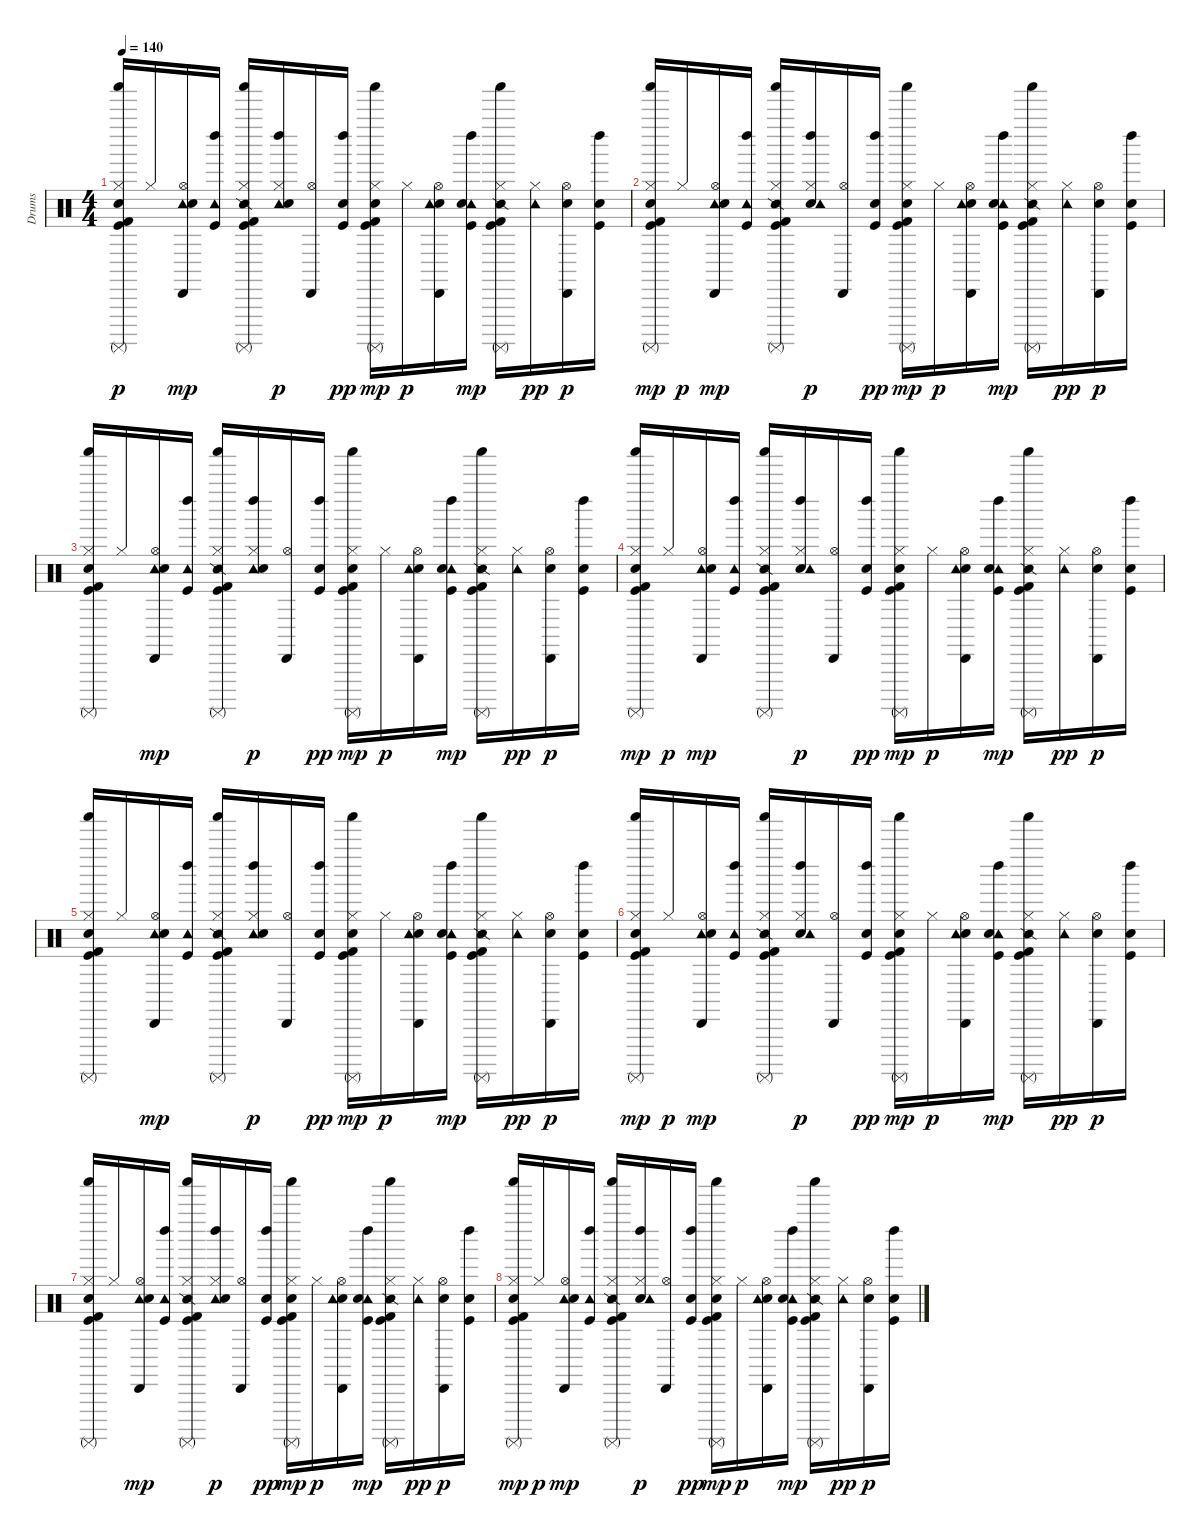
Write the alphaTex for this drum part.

\track ("Drums" "Drums") {instrument percussion}
\staff {score}
\articulation defaults
\ts (4 4)
\tempo 140
\clef neutral
\ks c
("Kick (hit)" "Kick (hit) 2" "Hi-Hat (closed)" "Shaker (hit)" "Surdo (mute)" "Snare (hit) 2").16{dy p} "Hi-Hat (closed)".16 ("Hi-Hat (open)" "Tambourine (hit)" "Cabasa (hit)" "Snare (hit) 2").16{dy mp} ("Kick (hit)" "Tambourine (hit)" "Left Maraca (hit)").16 ("Snare (side stick) 2" "Kick (hit)" "Kick (hit) 2" "Hi-Hat (closed)" "Shaker (hit)" "Surdo (mute)").16 ("Hi-Hat (closed)" "Tambourine (hit)" "Left Maraca (hit)" "Snare (hit) 2").16{dy p} ("Hi-Hat (open)" "Cabasa (hit)").16 ("Kick (hit)" "Left Maraca (hit)" "Snare (hit) 2").16{dy pp} ("Kick (hit)" "Kick (hit) 2" "Hi-Hat (closed)" "Shaker (hit)" "Surdo (mute)" "Snare (hit) 2").16{dy mp} "Hi-Hat (closed)".16{dy p} ("Hand Clap (hit)" "Hi-Hat (open)" "Tambourine (hit)" "Cabasa (hit)").16 ("Kick (hit)" "Tambourine (hit)" "Left Maraca (hit)" "Snare (hit) 2").16{dy mp} ("Snare (side stick) 2" "Kick (hit)" "Kick (hit) 2" "Hi-Hat (closed)" "Shaker (hit)" "Surdo (mute)").16 ("Hi-Hat (closed)" "Tambourine (hit)").16{dy pp} ("Hand Clap (hit)" "Hi-Hat (open)" "Cabasa (hit)").16{dy p} ("Kick (hit)" "Left Maraca (hit)" "Snare (hit) 2").16 |
("Kick (hit)" "Kick (hit) 2" "Hand Clap (hit)" "Hi-Hat (closed)" "Shaker (hit)" "Surdo (mute)").16{dy mp} "Hi-Hat (closed)".16{dy p} ("Hi-Hat (open)" "Tambourine (hit)" "Cabasa (hit)" "Snare (hit) 2").16{dy mp} ("Kick (hit)" "Tambourine (hit)" "Left Maraca (hit)").16 ("Snare (side stick) 2" "Kick (hit)" "Kick (hit) 2" "Hi-Hat (closed)" "Shaker (hit)" "Surdo (mute)").16 ("Hand Clap (hit)" "Hi-Hat (closed)" "Tambourine (hit)" "Left Maraca (hit)").16{dy p} ("Hi-Hat (open)" "Cabasa (hit)").16 ("Kick (hit)" "Left Maraca (hit)" "Snare (hit) 2").16{dy pp} ("Kick (hit)" "Kick (hit) 2" "Hi-Hat (closed)" "Shaker (hit)" "Surdo (mute)" "Snare (hit) 2").16{dy mp} "Hi-Hat (closed)".16{dy p} ("Hand Clap (hit)" "Hi-Hat (open)" "Tambourine (hit)" "Cabasa (hit)").16 ("Kick (hit)" "Tambourine (hit)" "Left Maraca (hit)" "Snare (hit) 2").16{dy mp} ("Snare (side stick) 2" "Kick (hit)" "Kick (hit) 2" "Hi-Hat (closed)" "Shaker (hit)" "Surdo (mute)").16 ("Hi-Hat (closed)" "Tambourine (hit)").16{dy pp} ("Hand Clap (hit)" "Hi-Hat (open)" "Cabasa (hit)").16{dy p} ("Kick (hit)" "Left Maraca (hit)" "Snare (hit) 2").16 |
("Kick (hit)" "Kick (hit) 2" "Hi-Hat (closed)" "Shaker (hit)" "Surdo (mute)" "Snare (hit) 2").16 "Hi-Hat (closed)".16 ("Hi-Hat (open)" "Tambourine (hit)" "Cabasa (hit)" "Snare (hit) 2").16{dy mp} ("Kick (hit)" "Tambourine (hit)" "Left Maraca (hit)").16 ("Snare (side stick) 2" "Kick (hit)" "Kick (hit) 2" "Hi-Hat (closed)" "Shaker (hit)" "Surdo (mute)").16 ("Hi-Hat (closed)" "Tambourine (hit)" "Left Maraca (hit)" "Snare (hit) 2").16{dy p} ("Hi-Hat (open)" "Cabasa (hit)").16 ("Kick (hit)" "Left Maraca (hit)" "Snare (hit) 2").16{dy pp} ("Kick (hit)" "Kick (hit) 2" "Hi-Hat (closed)" "Shaker (hit)" "Surdo (mute)" "Snare (hit) 2").16{dy mp} "Hi-Hat (closed)".16{dy p} ("Hand Clap (hit)" "Hi-Hat (open)" "Tambourine (hit)" "Cabasa (hit)").16 ("Kick (hit)" "Tambourine (hit)" "Left Maraca (hit)" "Snare (hit) 2").16{dy mp} ("Snare (side stick) 2" "Kick (hit)" "Kick (hit) 2" "Hi-Hat (closed)" "Shaker (hit)" "Surdo (mute)").16 ("Hi-Hat (closed)" "Tambourine (hit)").16{dy pp} ("Hand Clap (hit)" "Hi-Hat (open)" "Cabasa (hit)").16{dy p} ("Kick (hit)" "Left Maraca (hit)" "Snare (hit) 2").16 |
("Kick (hit)" "Kick (hit) 2" "Hand Clap (hit)" "Hi-Hat (closed)" "Shaker (hit)" "Surdo (mute)").16{dy mp} "Hi-Hat (closed)".16{dy p} ("Hi-Hat (open)" "Tambourine (hit)" "Cabasa (hit)" "Snare (hit) 2").16{dy mp} ("Kick (hit)" "Tambourine (hit)" "Left Maraca (hit)").16 ("Snare (side stick) 2" "Kick (hit)" "Kick (hit) 2" "Hi-Hat (closed)" "Shaker (hit)" "Surdo (mute)").16 ("Hand Clap (hit)" "Hi-Hat (closed)" "Tambourine (hit)" "Left Maraca (hit)").16{dy p} ("Hi-Hat (open)" "Cabasa (hit)").16 ("Kick (hit)" "Left Maraca (hit)" "Snare (hit) 2").16{dy pp} ("Kick (hit)" "Kick (hit) 2" "Hi-Hat (closed)" "Shaker (hit)" "Surdo (mute)" "Snare (hit) 2").16{dy mp} "Hi-Hat (closed)".16{dy p} ("Hand Clap (hit)" "Hi-Hat (open)" "Tambourine (hit)" "Cabasa (hit)").16 ("Kick (hit)" "Tambourine (hit)" "Left Maraca (hit)" "Snare (hit) 2").16{dy mp} ("Snare (side stick) 2" "Kick (hit)" "Kick (hit) 2" "Hi-Hat (closed)" "Shaker (hit)" "Surdo (mute)").16 ("Hi-Hat (closed)" "Tambourine (hit)").16{dy pp} ("Hand Clap (hit)" "Hi-Hat (open)" "Cabasa (hit)").16{dy p} ("Kick (hit)" "Left Maraca (hit)" "Snare (hit) 2").16 |
("Kick (hit)" "Kick (hit) 2" "Hi-Hat (closed)" "Shaker (hit)" "Surdo (mute)" "Snare (hit) 2").16 "Hi-Hat (closed)".16 ("Hi-Hat (open)" "Tambourine (hit)" "Cabasa (hit)" "Snare (hit) 2").16{dy mp} ("Kick (hit)" "Tambourine (hit)" "Left Maraca (hit)").16 ("Snare (side stick) 2" "Kick (hit)" "Kick (hit) 2" "Hi-Hat (closed)" "Shaker (hit)" "Surdo (mute)").16 ("Hi-Hat (closed)" "Tambourine (hit)" "Left Maraca (hit)" "Snare (hit) 2").16{dy p} ("Hi-Hat (open)" "Cabasa (hit)").16 ("Kick (hit)" "Left Maraca (hit)" "Snare (hit) 2").16{dy pp} ("Kick (hit)" "Kick (hit) 2" "Hi-Hat (closed)" "Shaker (hit)" "Surdo (mute)" "Snare (hit) 2").16{dy mp} "Hi-Hat (closed)".16{dy p} ("Hand Clap (hit)" "Hi-Hat (open)" "Tambourine (hit)" "Cabasa (hit)").16 ("Kick (hit)" "Tambourine (hit)" "Left Maraca (hit)" "Snare (hit) 2").16{dy mp} ("Snare (side stick) 2" "Kick (hit)" "Kick (hit) 2" "Hi-Hat (closed)" "Shaker (hit)" "Surdo (mute)").16 ("Hi-Hat (closed)" "Tambourine (hit)").16{dy pp} ("Hand Clap (hit)" "Hi-Hat (open)" "Cabasa (hit)").16{dy p} ("Kick (hit)" "Left Maraca (hit)" "Snare (hit) 2").16 |
("Kick (hit)" "Kick (hit) 2" "Hand Clap (hit)" "Hi-Hat (closed)" "Shaker (hit)" "Surdo (mute)").16{dy mp} "Hi-Hat (closed)".16{dy p} ("Hi-Hat (open)" "Tambourine (hit)" "Cabasa (hit)" "Snare (hit) 2").16{dy mp} ("Kick (hit)" "Tambourine (hit)" "Left Maraca (hit)").16 ("Snare (side stick) 2" "Kick (hit)" "Kick (hit) 2" "Hi-Hat (closed)" "Shaker (hit)" "Surdo (mute)").16 ("Hand Clap (hit)" "Hi-Hat (closed)" "Tambourine (hit)" "Left Maraca (hit)").16{dy p} ("Hi-Hat (open)" "Cabasa (hit)").16 ("Kick (hit)" "Left Maraca (hit)" "Snare (hit) 2").16{dy pp} ("Kick (hit)" "Kick (hit) 2" "Hi-Hat (closed)" "Shaker (hit)" "Surdo (mute)" "Snare (hit) 2").16{dy mp} "Hi-Hat (closed)".16{dy p} ("Hand Clap (hit)" "Hi-Hat (open)" "Tambourine (hit)" "Cabasa (hit)").16 ("Kick (hit)" "Tambourine (hit)" "Left Maraca (hit)" "Snare (hit) 2").16{dy mp} ("Snare (side stick) 2" "Kick (hit)" "Kick (hit) 2" "Hi-Hat (closed)" "Shaker (hit)" "Surdo (mute)").16 ("Hi-Hat (closed)" "Tambourine (hit)").16{dy pp} ("Hand Clap (hit)" "Hi-Hat (open)" "Cabasa (hit)").16{dy p} ("Kick (hit)" "Left Maraca (hit)" "Snare (hit) 2").16 |
("Kick (hit)" "Kick (hit) 2" "Hi-Hat (closed)" "Shaker (hit)" "Surdo (mute)" "Snare (hit) 2").16 "Hi-Hat (closed)".16 ("Hi-Hat (open)" "Tambourine (hit)" "Cabasa (hit)" "Snare (hit) 2").16{dy mp} ("Kick (hit)" "Tambourine (hit)" "Left Maraca (hit)").16 ("Snare (side stick) 2" "Kick (hit)" "Kick (hit) 2" "Hi-Hat (closed)" "Shaker (hit)" "Surdo (mute)").16 ("Hi-Hat (closed)" "Tambourine (hit)" "Left Maraca (hit)" "Snare (hit) 2").16{dy p} ("Hi-Hat (open)" "Cabasa (hit)").16 ("Kick (hit)" "Left Maraca (hit)" "Snare (hit) 2").16{dy pp} ("Kick (hit)" "Kick (hit) 2" "Hi-Hat (closed)" "Shaker (hit)" "Surdo (mute)" "Snare (hit) 2").16{dy mp} "Hi-Hat (closed)".16{dy p} ("Hand Clap (hit)" "Hi-Hat (open)" "Tambourine (hit)" "Cabasa (hit)").16 ("Kick (hit)" "Tambourine (hit)" "Left Maraca (hit)" "Snare (hit) 2").16{dy mp} ("Snare (side stick) 2" "Kick (hit)" "Kick (hit) 2" "Hi-Hat (closed)" "Shaker (hit)" "Surdo (mute)").16 ("Hi-Hat (closed)" "Tambourine (hit)").16{dy pp} ("Hand Clap (hit)" "Hi-Hat (open)" "Cabasa (hit)").16{dy p} ("Kick (hit)" "Left Maraca (hit)" "Snare (hit) 2").16 |
("Kick (hit)" "Kick (hit) 2" "Hand Clap (hit)" "Hi-Hat (closed)" "Shaker (hit)" "Surdo (mute)").16{dy mp} "Hi-Hat (closed)".16{dy p} ("Hi-Hat (open)" "Tambourine (hit)" "Cabasa (hit)" "Snare (hit) 2").16{dy mp} ("Kick (hit)" "Tambourine (hit)" "Left Maraca (hit)").16 ("Snare (side stick) 2" "Kick (hit)" "Kick (hit) 2" "Hi-Hat (closed)" "Shaker (hit)" "Surdo (mute)").16 ("Hand Clap (hit)" "Hi-Hat (closed)" "Tambourine (hit)" "Left Maraca (hit)").16{dy p} ("Hi-Hat (open)" "Cabasa (hit)").16 ("Kick (hit)" "Left Maraca (hit)" "Snare (hit) 2").16{dy pp} ("Kick (hit)" "Kick (hit) 2" "Hi-Hat (closed)" "Shaker (hit)" "Surdo (mute)" "Snare (hit) 2").16{dy mp} "Hi-Hat (closed)".16{dy p} ("Hand Clap (hit)" "Hi-Hat (open)" "Tambourine (hit)" "Cabasa (hit)").16 ("Kick (hit)" "Tambourine (hit)" "Left Maraca (hit)" "Snare (hit) 2").16{dy mp} ("Snare (side stick) 2" "Kick (hit)" "Kick (hit) 2" "Hi-Hat (closed)" "Shaker (hit)" "Surdo (mute)").16 ("Hi-Hat (closed)" "Tambourine (hit)").16{dy pp} ("Hand Clap (hit)" "Hi-Hat (open)" "Cabasa (hit)").16{dy p} ("Kick (hit)" "Left Maraca (hit)" "Snare (hit) 2").16
